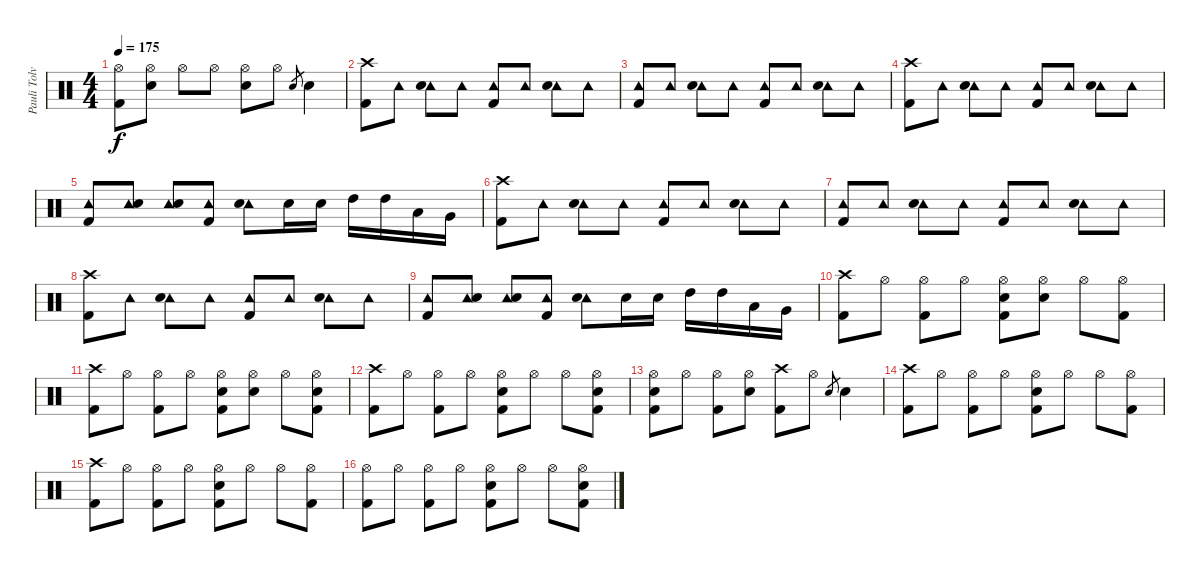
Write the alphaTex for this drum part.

\track ("Pauli Tolvanen-Drums" "Pauli Tolv") {instrument percussion}
\staff {score}
\articulation defaults
\ts (4 4)
\tempo 175
\clef neutral
\ks c
("Hi-Hat (open)" "Kick (hit) 2").8{dy f} ("Hi-Hat (open)" "Snare (hit) 2").8 "Hi-Hat (open)".8 "Hi-Hat (open)".8 ("Hi-Hat (open)" "Snare (hit) 2").8 "Hi-Hat (open)".8 "Snare (hit) 2".8{gr} "Snare (hit) 2".4 |
("Crash high (hit)" "Kick (hit) 2").8 "Tambourine (hit)".8 ("Tambourine (hit)" "Snare (hit) 2").8 "Tambourine (hit)".8 ("Tambourine (hit)" "Kick (hit) 2").8 "Tambourine (hit)".8 ("Tambourine (hit)" "Snare (hit) 2").8 "Tambourine (hit)".8 |
("Tambourine (hit)" "Kick (hit) 2").8 "Tambourine (hit)".8 ("Tambourine (hit)" "Snare (hit) 2").8 "Tambourine (hit)".8 ("Tambourine (hit)" "Kick (hit) 2").8 "Tambourine (hit)".8 ("Tambourine (hit)" "Snare (hit) 2").8 "Tambourine (hit)".8 |
("Crash high (hit)" "Kick (hit) 2").8 "Tambourine (hit)".8 ("Tambourine (hit)" "Snare (hit) 2").8 "Tambourine (hit)".8 ("Tambourine (hit)" "Kick (hit) 2").8 "Tambourine (hit)".8 ("Tambourine (hit)" "Snare (hit) 2").8 "Tambourine (hit)".8 |
("Tambourine (hit)" "Kick (hit) 2").8 ("Tambourine (hit)" "Snare (hit) 2").8 ("Tambourine (hit)" "Snare (hit) 2").8 ("Tambourine (hit)" "Kick (hit) 2").8 ("Tambourine (hit)" "Snare (hit) 2").8 "Snare (hit) 2".16 "Snare (hit) 2".16 "High Tom (hit)".16 "High Tom (hit)".16 "Low Tom (hit)".16 "Very Low Tom (hit)".16 |
("Crash high (hit)" "Kick (hit) 2").8 "Tambourine (hit)".8 ("Tambourine (hit)" "Snare (hit) 2").8 "Tambourine (hit)".8 ("Tambourine (hit)" "Kick (hit) 2").8 "Tambourine (hit)".8 ("Tambourine (hit)" "Snare (hit) 2").8 "Tambourine (hit)".8 |
("Tambourine (hit)" "Kick (hit) 2").8 "Tambourine (hit)".8 ("Tambourine (hit)" "Snare (hit) 2").8 "Tambourine (hit)".8 ("Tambourine (hit)" "Kick (hit) 2").8 "Tambourine (hit)".8 ("Tambourine (hit)" "Snare (hit) 2").8 "Tambourine (hit)".8 |
("Crash high (hit)" "Kick (hit) 2").8 "Tambourine (hit)".8 ("Tambourine (hit)" "Snare (hit) 2").8 "Tambourine (hit)".8 ("Tambourine (hit)" "Kick (hit) 2").8 "Tambourine (hit)".8 ("Tambourine (hit)" "Snare (hit) 2").8 "Tambourine (hit)".8 |
("Tambourine (hit)" "Kick (hit) 2").8 ("Tambourine (hit)" "Snare (hit) 2").8 ("Tambourine (hit)" "Snare (hit) 2").8 ("Tambourine (hit)" "Kick (hit) 2").8 ("Tambourine (hit)" "Snare (hit) 2").8 "Snare (hit) 2".16 "Snare (hit) 2".16 "High Tom (hit)".16 "High Tom (hit)".16 "Low Tom (hit)".16 "Very Low Tom (hit)".16 |
("Crash high (hit)" "Kick (hit) 2").8 "Hi-Hat (open)".8 ("Hi-Hat (open)" "Kick (hit) 2").8 "Hi-Hat (open)".8 ("Hi-Hat (open)" "Snare (hit) 2" "Kick (hit) 2").8 ("Hi-Hat (open)" "Snare (hit) 2").8 "Hi-Hat (open)".8 ("Hi-Hat (open)" "Kick (hit) 2").8 |
("Crash high (hit)" "Kick (hit) 2").8 "Hi-Hat (open)".8 ("Hi-Hat (open)" "Kick (hit) 2").8 "Hi-Hat (open)".8 ("Hi-Hat (open)" "Snare (hit) 2" "Kick (hit) 2").8 ("Hi-Hat (open)" "Snare (hit) 2").8 "Hi-Hat (open)".8 ("Hi-Hat (open)" "Snare (hit) 2" "Kick (hit) 2").8 |
("Crash high (hit)" "Kick (hit) 2").8 "Hi-Hat (open)".8 ("Hi-Hat (open)" "Kick (hit) 2").8 "Hi-Hat (open)".8 ("Hi-Hat (open)" "Snare (hit) 2" "Kick (hit) 2").8 "Hi-Hat (open)".8 "Hi-Hat (open)".8 ("Hi-Hat (open)" "Snare (hit) 2" "Kick (hit) 2").8 |
("Hi-Hat (open)" "Snare (hit) 2" "Kick (hit) 2").8 "Hi-Hat (open)".8 ("Hi-Hat (open)" "Kick (hit) 2").8 ("Hi-Hat (open)" "Snare (hit) 2").8 ("Crash high (hit)" "Kick (hit) 2").8 "Hi-Hat (open)".8 "Snare (hit) 2".8{gr} "Snare (hit) 2".4 |
("Crash high (hit)" "Kick (hit) 2").8 "Hi-Hat (open)".8 ("Hi-Hat (open)" "Kick (hit) 2").8 "Hi-Hat (open)".8 ("Hi-Hat (open)" "Snare (hit) 2" "Kick (hit) 2").8 "Hi-Hat (open)".8 "Hi-Hat (open)".8 ("Hi-Hat (open)" "Kick (hit) 2").8 |
("Crash high (hit)" "Kick (hit) 2").8 "Hi-Hat (open)".8 ("Hi-Hat (open)" "Kick (hit) 2").8 "Hi-Hat (open)".8 ("Hi-Hat (open)" "Snare (hit) 2" "Kick (hit) 2").8 "Hi-Hat (open)".8 "Hi-Hat (open)".8 ("Hi-Hat (open)" "Kick (hit) 2").8 |
("Hi-Hat (open)" "Kick (hit) 2").8 "Hi-Hat (open)".8 ("Hi-Hat (open)" "Kick (hit) 2").8 "Hi-Hat (open)".8 ("Hi-Hat (open)" "Snare (hit) 2" "Kick (hit) 2").8 "Hi-Hat (open)".8 "Hi-Hat (open)".8 ("Hi-Hat (open)" "Snare (hit) 2" "Kick (hit) 2").8
